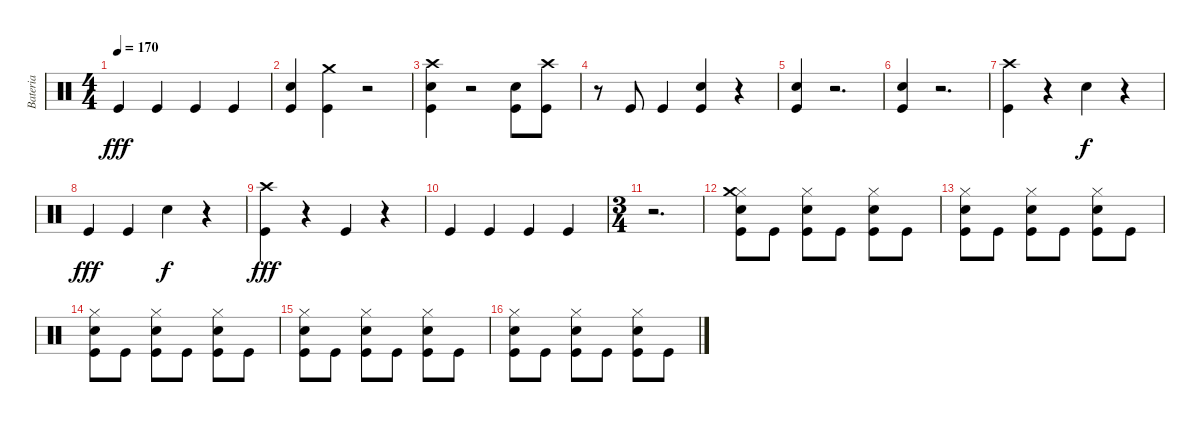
\track ("Bateria" "Bateria") {instrument percussion}
\staff {score}
\articulation defaults
\ts (4 4)
\tempo 170
\clef neutral
\ks c "Kick (hit)".4{dy fff} "Kick (hit)".4 "Kick (hit)".4 "Kick (hit)".4
|
("Kick (hit)" "Snare (hit) 2").4 ("Kick (hit)" "Crash medium (hit)").4 r.2 |
("Kick (hit)" "Snare (hit) 2" "Crash high (hit)").4 r.2 ("Kick (hit)" "Snare (hit) 2").8 ("Kick (hit)" "Crash high (hit)").8 |
r.8 "Kick (hit)".8 "Kick (hit)".4 ("Kick (hit)" "Snare (hit) 2").4 r.4 |
("Kick (hit)" "Snare (hit) 2").4 r.2{d} |
("Kick (hit)" "Snare (hit) 2").4 r.2{d} |
("Kick (hit)" "Crash high (hit)").4 r.4 "Snare (hit) 2".4{dy f} r.4 |
"Kick (hit)".4{dy fff} "Kick (hit)".4 "Snare (hit) 2".4{dy f} r.4 |
("Kick (hit)" "Crash high (hit)").4{dy fff} r.4 "Kick (hit)".4 r.4 |
"Kick (hit)".4 "Kick (hit)".4 "Kick (hit)".4 "Kick (hit)".4 |
\ts (3 4)
r.2{d} |
("Kick (hit)" "Snare (hit) 2" "Hi-Hat (closed)" "Crash medium (hit)").8 "Kick (hit)".8 ("Kick (hit)" "Snare (hit) 2" "Hi-Hat (closed)").8 "Kick (hit)".8 ("Kick (hit)" "Snare (hit) 2" "Hi-Hat (closed)").8 "Kick (hit)".8 |
("Kick (hit)" "Snare (hit) 2" "Hi-Hat (closed)").8 "Kick (hit)".8 ("Kick (hit)" "Snare (hit) 2" "Hi-Hat (closed)").8 "Kick (hit)".8 ("Kick (hit)" "Snare (hit) 2" "Hi-Hat (closed)").8 "Kick (hit)".8 |
("Kick (hit)" "Snare (hit) 2" "Hi-Hat (closed)").8 "Kick (hit)".8 ("Kick (hit)" "Snare (hit) 2" "Hi-Hat (closed)").8 "Kick (hit)".8 ("Kick (hit)" "Snare (hit) 2" "Hi-Hat (closed)").8 "Kick (hit)".8 |
("Kick (hit)" "Snare (hit) 2" "Hi-Hat (closed)").8 "Kick (hit)".8 ("Kick (hit)" "Snare (hit) 2" "Hi-Hat (closed)").8 "Kick (hit)".8 ("Kick (hit)" "Snare (hit) 2" "Hi-Hat (closed)").8 "Kick (hit)".8 |
("Kick (hit)" "Snare (hit) 2" "Hi-Hat (closed)").8 "Kick (hit)".8 ("Kick (hit)" "Snare (hit) 2" "Hi-Hat (closed)").8 "Kick (hit)".8 ("Kick (hit)" "Snare (hit) 2" "Hi-Hat (closed)").8 "Kick (hit)".8
